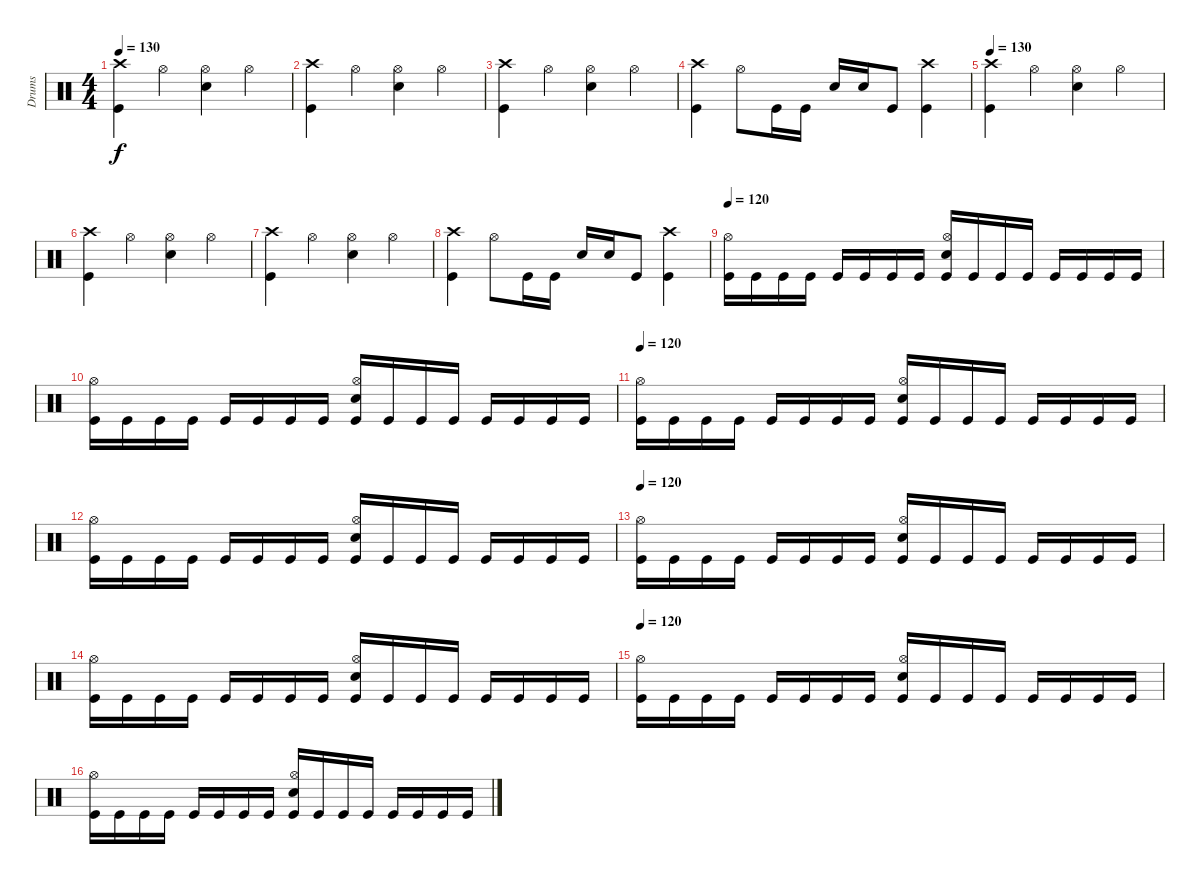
\track ("Drums" "Drums") {instrument percussion}
\staff {score}
\articulation defaults
\ts (4 4)
\tempo 130
\clef neutral
\ks c
("Crash high (hit)" "Kick (hit)").4{dy f} "Hi-Hat (open)".4 ("Hi-Hat (open)" "Electric Snare (hit)").4 "Hi-Hat (open)".4 |
("Crash high (hit)" "Kick (hit)").4 "Hi-Hat (open)".4 ("Hi-Hat (open)" "Electric Snare (hit)").4 "Hi-Hat (open)".4 |
("Crash high (hit)" "Kick (hit)").4 "Hi-Hat (open)".4 ("Hi-Hat (open)" "Electric Snare (hit)").4 "Hi-Hat (open)".4 |
("Crash high (hit)" "Kick (hit)").4 "Hi-Hat (open)".8 "Kick (hit)".16 "Kick (hit)".16 "Electric Snare (hit)".16 "Electric Snare (hit)".16 "Kick (hit)".8 ("Crash high (hit)" "Kick (hit)").4 |
\tempo 130
("Crash high (hit)" "Kick (hit)").4 "Hi-Hat (open)".4 ("Hi-Hat (open)" "Electric Snare (hit)").4 "Hi-Hat (open)".4 |
("Crash high (hit)" "Kick (hit)").4 "Hi-Hat (open)".4 ("Hi-Hat (open)" "Electric Snare (hit)").4 "Hi-Hat (open)".4 |
("Crash high (hit)" "Kick (hit)").4 "Hi-Hat (open)".4 ("Hi-Hat (open)" "Electric Snare (hit)").4 "Hi-Hat (open)".4 |
("Crash high (hit)" "Kick (hit)").4 "Hi-Hat (open)".8 "Kick (hit)".16 "Kick (hit)".16 "Electric Snare (hit)".16 "Electric Snare (hit)".16 "Kick (hit)".8 ("Crash high (hit)" "Kick (hit)").4 |
\tempo 100
\tempo 120
("Hi-Hat (open)" "Kick (hit)").16 "Kick (hit)".16 "Kick (hit)".16 "Kick (hit)".16 "Kick (hit)".16 "Kick (hit)".16 "Kick (hit)".16 "Kick (hit)".16 ("Electric Snare (hit)" "Hi-Hat (open)" "Kick (hit)").16 "Kick (hit)".16 "Kick (hit)".16 "Kick (hit)".16 "Kick (hit)".16 "Kick (hit)".16 "Kick (hit)".16 "Kick (hit)".16 |
("Hi-Hat (open)" "Kick (hit)").16 "Kick (hit)".16 "Kick (hit)".16 "Kick (hit)".16 "Kick (hit)".16 "Kick (hit)".16 "Kick (hit)".16 "Kick (hit)".16 ("Electric Snare (hit)" "Hi-Hat (open)" "Kick (hit)").16 "Kick (hit)".16 "Kick (hit)".16 "Kick (hit)".16 "Kick (hit)".16 "Kick (hit)".16 "Kick (hit)".16 "Kick (hit)".16 |
\tempo 120
("Hi-Hat (open)" "Kick (hit)").16 "Kick (hit)".16 "Kick (hit)".16 "Kick (hit)".16 "Kick (hit)".16 "Kick (hit)".16 "Kick (hit)".16 "Kick (hit)".16 ("Electric Snare (hit)" "Hi-Hat (open)" "Kick (hit)").16 "Kick (hit)".16 "Kick (hit)".16 "Kick (hit)".16 "Kick (hit)".16 "Kick (hit)".16 "Kick (hit)".16 "Kick (hit)".16 |
("Hi-Hat (open)" "Kick (hit)").16 "Kick (hit)".16 "Kick (hit)".16 "Kick (hit)".16 "Kick (hit)".16 "Kick (hit)".16 "Kick (hit)".16 "Kick (hit)".16 ("Electric Snare (hit)" "Hi-Hat (open)" "Kick (hit)").16 "Kick (hit)".16 "Kick (hit)".16 "Kick (hit)".16 "Kick (hit)".16 "Kick (hit)".16 "Kick (hit)".16 "Kick (hit)".16 |
\tempo 120
("Hi-Hat (open)" "Kick (hit)").16 "Kick (hit)".16 "Kick (hit)".16 "Kick (hit)".16 "Kick (hit)".16 "Kick (hit)".16 "Kick (hit)".16 "Kick (hit)".16 ("Electric Snare (hit)" "Hi-Hat (open)" "Kick (hit)").16 "Kick (hit)".16 "Kick (hit)".16 "Kick (hit)".16 "Kick (hit)".16 "Kick (hit)".16 "Kick (hit)".16 "Kick (hit)".16 |
("Hi-Hat (open)" "Kick (hit)").16 "Kick (hit)".16 "Kick (hit)".16 "Kick (hit)".16 "Kick (hit)".16 "Kick (hit)".16 "Kick (hit)".16 "Kick (hit)".16 ("Electric Snare (hit)" "Hi-Hat (open)" "Kick (hit)").16 "Kick (hit)".16 "Kick (hit)".16 "Kick (hit)".16 "Kick (hit)".16 "Kick (hit)".16 "Kick (hit)".16 "Kick (hit)".16 |
\tempo 120
("Hi-Hat (open)" "Kick (hit)").16 "Kick (hit)".16 "Kick (hit)".16 "Kick (hit)".16 "Kick (hit)".16 "Kick (hit)".16 "Kick (hit)".16 "Kick (hit)".16 ("Electric Snare (hit)" "Hi-Hat (open)" "Kick (hit)").16 "Kick (hit)".16 "Kick (hit)".16 "Kick (hit)".16 "Kick (hit)".16 "Kick (hit)".16 "Kick (hit)".16 "Kick (hit)".16 |
("Hi-Hat (open)" "Kick (hit)").16 "Kick (hit)".16 "Kick (hit)".16 "Kick (hit)".16 "Kick (hit)".16 "Kick (hit)".16 "Kick (hit)".16 "Kick (hit)".16 ("Electric Snare (hit)" "Hi-Hat (open)" "Kick (hit)").16 "Kick (hit)".16 "Kick (hit)".16 "Kick (hit)".16 "Kick (hit)".16 "Kick (hit)".16 "Kick (hit)".16 "Kick (hit)".16
